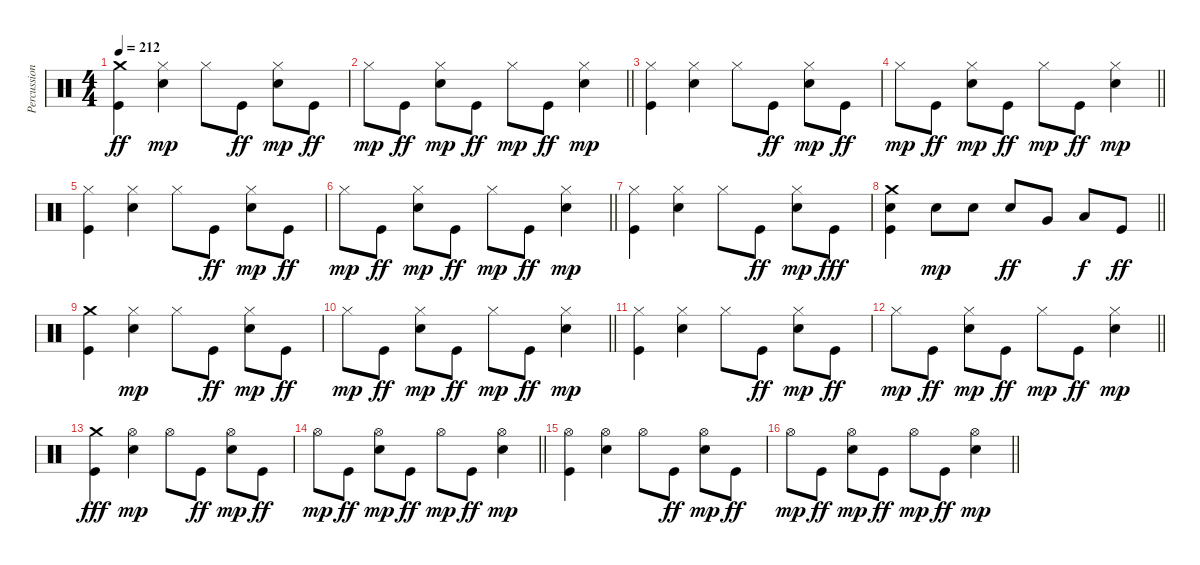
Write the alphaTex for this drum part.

\track ("Percussion" "Percussion") {instrument percussion}
\staff {score}
\articulation defaults
\ts (4 4)
\tempo 212
\clef neutral
\ks c
("Crash medium (hit)" "Kick (hit)").4{dy ff} ("Hi-Hat (closed)" "Snare (hit) 2").4{dy mp} "Hi-Hat (closed)".8 "Kick (hit)".8{dy ff} ("Hi-Hat (closed)" "Snare (hit) 2").8{dy mp} "Kick (hit)".8{dy ff} |
\barLineRight lightlight "Hi-Hat (closed)".8{dy mp} "Kick (hit)".8{dy ff}
("Hi-Hat (closed)" "Snare (hit) 2").8{dy mp} "Kick (hit)".8{dy ff} "Hi-Hat (closed)".8{dy mp} "Kick (hit)".8{dy ff} ("Hi-Hat (closed)" "Snare (hit) 2").4{dy mp} |
("Hi-Hat (closed)" "Kick (hit)").4 ("Hi-Hat (closed)" "Snare (hit) 2").4 "Hi-Hat (closed)".8 "Kick (hit)".8{dy ff} ("Hi-Hat (closed)" "Snare (hit) 2").8{dy mp} "Kick (hit)".8{dy ff} |
\barLineRight lightlight "Hi-Hat (closed)".8{dy mp} "Kick (hit)".8{dy ff}
("Hi-Hat (closed)" "Snare (hit) 2").8{dy mp} "Kick (hit)".8{dy ff} "Hi-Hat (closed)".8{dy mp} "Kick (hit)".8{dy ff} ("Hi-Hat (closed)" "Snare (hit) 2").4{dy mp} |
("Hi-Hat (closed)" "Kick (hit)").4 ("Hi-Hat (closed)" "Snare (hit) 2").4 "Hi-Hat (closed)".8 "Kick (hit)".8{dy ff} ("Hi-Hat (closed)" "Snare (hit) 2").8{dy mp} "Kick (hit)".8{dy ff} |
\barLineRight lightlight "Hi-Hat (closed)".8{dy mp} "Kick (hit)".8{dy ff}
("Hi-Hat (closed)" "Snare (hit) 2").8{dy mp} "Kick (hit)".8{dy ff} "Hi-Hat (closed)".8{dy mp} "Kick (hit)".8{dy ff} ("Hi-Hat (closed)" "Snare (hit) 2").4{dy mp} |
("Hi-Hat (closed)" "Kick (hit)").4 ("Hi-Hat (closed)" "Snare (hit) 2").4 "Hi-Hat (closed)".8 "Kick (hit)".8{dy ff} ("Hi-Hat (closed)" "Snare (hit) 2").8{dy mp} "Kick (hit)".8{dy fff} |
\barLineRight lightlight
("Crash medium (hit)" "Snare (hit) 2" "Kick (hit)").4 "Snare (hit) 2".8{dy mp} "Snare (hit) 2".8 "Snare (hit) 2".8{dy ff} "Very Low Tom (hit)".8 "Low Floor Tom (hit)".8{dy f} "Kick (hit)".8{dy ff} |
("Crash medium (hit)" "Kick (hit)").4 ("Hi-Hat (closed)" "Snare (hit) 2").4{dy mp} "Hi-Hat (closed)".8 "Kick (hit)".8{dy ff} ("Hi-Hat (closed)" "Snare (hit) 2").8{dy mp} "Kick (hit)".8{dy ff} |
\barLineRight lightlight "Hi-Hat (closed)".8{dy mp} "Kick (hit)".8{dy ff}
("Hi-Hat (closed)" "Snare (hit) 2").8{dy mp} "Kick (hit)".8{dy ff} "Hi-Hat (closed)".8{dy mp} "Kick (hit)".8{dy ff} ("Hi-Hat (closed)" "Snare (hit) 2").4{dy mp} |
("Hi-Hat (closed)" "Kick (hit)").4 ("Hi-Hat (closed)" "Snare (hit) 2").4 "Hi-Hat (closed)".8 "Kick (hit)".8{dy ff} ("Hi-Hat (closed)" "Snare (hit) 2").8{dy mp} "Kick (hit)".8{dy ff} |
\barLineRight lightlight "Hi-Hat (closed)".8{dy mp} "Kick (hit)".8{dy ff}
("Hi-Hat (closed)" "Snare (hit) 2").8{dy mp} "Kick (hit)".8{dy ff} "Hi-Hat (closed)".8{dy mp} "Kick (hit)".8{dy ff} ("Hi-Hat (closed)" "Snare (hit) 2").4{dy mp} |
("Crash medium (hit)" "Kick (hit)").4{dy fff} ("Hi-Hat (open)" "Snare (hit) 2").4{dy mp} "Hi-Hat (open)".8 "Kick (hit)".8{dy ff} ("Hi-Hat (open)" "Snare (hit) 2").8{dy mp} "Kick (hit)".8{dy ff} |
\barLineRight lightlight "Hi-Hat (open)".8{dy mp} "Kick (hit)".8{dy ff}
("Hi-Hat (open)" "Snare (hit) 2").8{dy mp} "Kick (hit)".8{dy ff} "Hi-Hat (open)".8{dy mp} "Kick (hit)".8{dy ff} ("Hi-Hat (open)" "Snare (hit) 2").4{dy mp} |
("Hi-Hat (open)" "Kick (hit)").4 ("Hi-Hat (open)" "Snare (hit) 2").4 "Hi-Hat (open)".8 "Kick (hit)".8{dy ff} ("Hi-Hat (open)" "Snare (hit) 2").8{dy mp} "Kick (hit)".8{dy ff} |
\barLineRight lightlight "Hi-Hat (open)".8{dy mp} "Kick (hit)".8{dy ff}
("Hi-Hat (open)" "Snare (hit) 2").8{dy mp} "Kick (hit)".8{dy ff} "Hi-Hat (open)".8{dy mp} "Kick (hit)".8{dy ff} ("Hi-Hat (open)" "Snare (hit) 2").4{dy mp}
